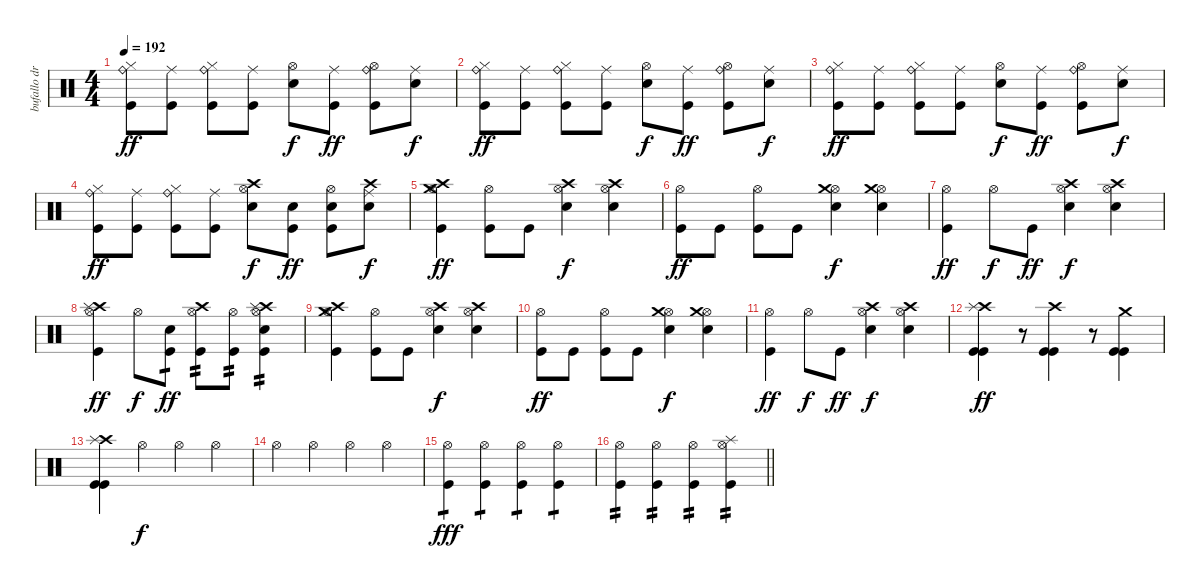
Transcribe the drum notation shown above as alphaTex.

\track ("bufallo drums" "bufallo dr") {instrument percussion}
\staff {score}
\articulation defaults
\ts (4 4)
\tempo 192
\clef neutral
\ks c
("Hi-Hat (closed)" "Ride (bell)" "Kick (hit)").8{dy ff} ("Ride (middle)" "Kick (hit)").8 ("Hi-Hat (closed)" "Ride (bell)" "Kick (hit)").8 ("Ride (middle)" "Kick (hit)").8 ("Hi-Hat (open)" "Electric Snare (hit)").8{dy f} ("Ride (middle)" "Kick (hit)").8{dy ff} ("Hi-Hat (open)" "Ride (bell)" "Kick (hit)").8 ("Ride (middle)" "Electric Snare (hit)").8{dy f} |
("Hi-Hat (closed)" "Ride (bell)" "Kick (hit)").8{dy ff} ("Ride (middle)" "Kick (hit)").8 ("Hi-Hat (closed)" "Ride (bell)" "Kick (hit)").8 ("Ride (middle)" "Kick (hit)").8 ("Hi-Hat (open)" "Electric Snare (hit)").8{dy f} ("Ride (middle)" "Kick (hit)").8{dy ff} ("Hi-Hat (open)" "Ride (bell)" "Kick (hit)").8 ("Ride (middle)" "Electric Snare (hit)").8{dy f} |
("Hi-Hat (closed)" "Ride (bell)" "Kick (hit)").8{dy ff} ("Ride (middle)" "Kick (hit)").8 ("Hi-Hat (closed)" "Ride (bell)" "Kick (hit)").8 ("Ride (middle)" "Kick (hit)").8 ("Hi-Hat (open)" "Electric Snare (hit)").8{dy f} ("Ride (middle)" "Kick (hit)").8{dy ff} ("Hi-Hat (open)" "Ride (bell)" "Kick (hit)").8 ("Ride (middle)" "Electric Snare (hit)").8{dy f} |
("Hi-Hat (closed)" "Ride (bell)" "Kick (hit)").8{dy ff} ("Ride (middle)" "Kick (hit)").8 ("Hi-Hat (closed)" "Ride (bell)" "Kick (hit)").8 ("Ride (middle)" "Kick (hit)").8 ("Hi-Hat (open)" "Electric Snare (hit)" "Crash high (hit)").8{dy f} ("Electric Snare (hit)" "Kick (hit)").8{dy ff} ("Hi-Hat (open)" "Electric Snare (hit)" "Kick (hit)").8 ("Ride (middle)" "Electric Snare (hit)" "Crash high (hit)").8{dy f} |
("Hi-Hat (open)" "Crash medium (hit)" "Crash high (hit)" "Kick (hit)").4{dy ff} ("Hi-Hat (open)" "Kick (hit)").8 "Kick (hit)".8 ("Hi-Hat (open)" "Electric Snare (hit)" "Crash high (hit)").4{dy f} ("Hi-Hat (open)" "Electric Snare (hit)" "Crash high (hit)").4 |
("Hi-Hat (open)" "Kick (hit)").8{dy ff} "Kick (hit)".8 ("Hi-Hat (open)" "Kick (hit)").8 "Kick (hit)".8 ("Hi-Hat (open)" "Electric Snare (hit)" "Crash medium (hit)").4{dy f} ("Hi-Hat (open)" "Electric Snare (hit)" "Crash medium (hit)").4 |
("Hi-Hat (open)" "Kick (hit)").4{dy ff} "Hi-Hat (open)".8{dy f} "Kick (hit)".8{dy ff} ("Hi-Hat (open)" "Electric Snare (hit)" "Crash high (hit)").4{dy f} ("Hi-Hat (open)" "Electric Snare (hit)" "Crash high (hit)").4 |
("Hi-Hat (open)" "Crash high (hit)" "Splash (hit)" "Kick (hit)").4{dy ff} "Hi-Hat (open)".8{dy f} ("Electric Snare (hit)" "Kick (hit)").8{tp 1 dy ff} ("Hi-Hat (open)" "Crash high (hit)" "Kick (hit)").8{tp 2} ("Hi-Hat (open)" "Kick (hit)").8{tp 2} ("Hi-Hat (open)" "Crash high (hit)" "Splash (hit)" "Electric Snare (hit)" "Kick (hit)").4{tp 2} |
("Hi-Hat (open)" "Crash medium (hit)" "Crash high (hit)" "Kick (hit)").4 ("Hi-Hat (open)" "Kick (hit)").8 "Kick (hit)".8 ("Hi-Hat (open)" "Electric Snare (hit)" "Crash high (hit)").4{dy f} ("Hi-Hat (open)" "Electric Snare (hit)" "Crash high (hit)").4 |
("Hi-Hat (open)" "Kick (hit)").8{dy ff} "Kick (hit)".8 ("Hi-Hat (open)" "Kick (hit)").8 "Kick (hit)".8 ("Hi-Hat (open)" "Electric Snare (hit)" "Crash medium (hit)").4{dy f} ("Hi-Hat (open)" "Electric Snare (hit)" "Crash medium (hit)").4 |
("Hi-Hat (open)" "Kick (hit)").4{dy ff} "Hi-Hat (open)".8{dy f} "Kick (hit)".8{dy ff} ("Hi-Hat (open)" "Electric Snare (hit)" "Crash high (hit)").4{dy f} ("Hi-Hat (open)" "Electric Snare (hit)" "Crash high (hit)").4 |
("Crash high (hit)" "Splash (hit)" "Kick (hit)" "Kick (hit)").4{dy ff} r.8 ("Crash high (hit)" "Kick (hit)" "Kick (hit)").4 r.8 ("Crash medium (hit)" "Kick (hit)" "Kick (hit)").4 |
("Crash high (hit)" "Splash (hit)" "Kick (hit)" "Kick (hit)").4 "Hi-Hat (open)".4{dy f} "Hi-Hat (open)".4 "Hi-Hat (open)".4 |
"Hi-Hat (open)".4 "Hi-Hat (open)".4 "Hi-Hat (open)".4 "Hi-Hat (open)".4 |
("Hi-Hat (open)" "Kick (hit)").4{tp 1 dy fff} ("Hi-Hat (open)" "Kick (hit)").4{tp 1} ("Hi-Hat (open)" "Kick (hit)").4{tp 1} ("Hi-Hat (open)" "Kick (hit)").4{tp 1} |
\barLineRight lightlight
("Hi-Hat (open)" "Kick (hit)").4{tp 2} ("Hi-Hat (open)" "Kick (hit)").4{tp 2} ("Hi-Hat (open)" "Kick (hit)").4{tp 2} ("Hi-Hat (open)" "Splash (hit)" "Kick (hit)").4{tp 2}
